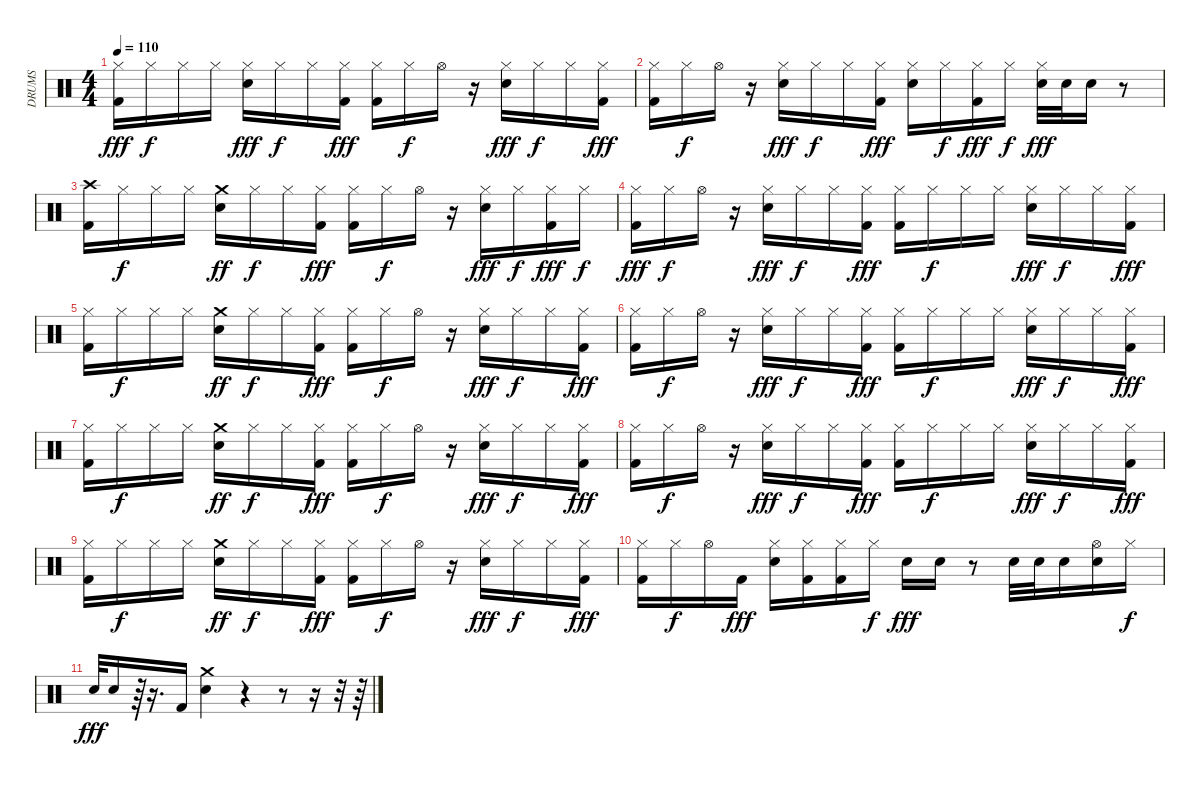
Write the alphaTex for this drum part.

\track ("DRUMS" "DRUMS") {solo instrument percussion}
\staff {score}
\articulation defaults
\ts (4 4)
\tempo 110
\clef neutral
\ks c
("Hi-Hat (closed)" "Kick (hit) 2").16{dy fff} "Hi-Hat (closed)".16{dy f} "Hi-Hat (closed)".16 "Hi-Hat (closed)".16 ("Electric Snare (hit)" "Hi-Hat (closed)").16{dy fff} "Hi-Hat (closed)".16{dy f} "Hi-Hat (closed)".16 ("Hi-Hat (closed)" "Kick (hit) 2").16{dy fff} ("Kick (hit) 2" "Hi-Hat (closed)").16 "Hi-Hat (closed)".16{dy f} "Hi-Hat (open)".16 r.16 ("Electric Snare (hit)" "Hi-Hat (closed)").16{dy fff} "Hi-Hat (closed)".16{dy f} "Hi-Hat (closed)".16 ("Hi-Hat (closed)" "Kick (hit) 2").16{dy fff} |
("Kick (hit) 2" "Hi-Hat (closed)").16 "Hi-Hat (closed)".16{dy f} "Hi-Hat (open)".16 r.16 ("Electric Snare (hit)" "Hi-Hat (closed)").16{dy fff} "Hi-Hat (closed)".16{dy f} "Hi-Hat (closed)".16 ("Hi-Hat (closed)" "Kick (hit) 2").16{dy fff} ("Electric Snare (hit)" "Hi-Hat (closed)").16 "Hi-Hat (closed)".16{dy f} ("Kick (hit) 2" "Hi-Hat (closed)").16{dy fff} "Hi-Hat (closed)".16{dy f} ("Electric Snare (hit)" "Hi-Hat (closed)").32{dy fff} "Electric Snare (hit)".32 "Electric Snare (hit)".16 r.8 |
("Crash high (hit)" "Kick (hit) 2").16 "Hi-Hat (closed)".16{dy f} "Hi-Hat (closed)".16 "Hi-Hat (closed)".16 ("Electric Snare (hit)" "Crash medium (hit)").16{dy ff} "Hi-Hat (closed)".16{dy f} "Hi-Hat (closed)".16 ("Hi-Hat (closed)" "Kick (hit) 2").16{dy fff} ("Kick (hit) 2" "Hi-Hat (closed)").16 "Hi-Hat (closed)".16{dy f} "Hi-Hat (open)".16 r.16 ("Electric Snare (hit)" "Hi-Hat (closed)").16{dy fff} "Hi-Hat (closed)".16{dy f} ("Kick (hit) 2" "Hi-Hat (closed)").16{dy fff} "Hi-Hat (closed)".16{dy f} |
("Kick (hit) 2" "Hi-Hat (closed)").16{dy fff} "Hi-Hat (closed)".16{dy f} "Hi-Hat (open)".16 r.16 ("Electric Snare (hit)" "Hi-Hat (closed)").16{dy fff} "Hi-Hat (closed)".16{dy f} "Hi-Hat (closed)".16 ("Hi-Hat (closed)" "Kick (hit) 2").16{dy fff} ("Kick (hit) 2" "Hi-Hat (closed)").16 "Hi-Hat (closed)".16{dy f} "Hi-Hat (closed)".16 "Hi-Hat (closed)".16 ("Electric Snare (hit)" "Hi-Hat (closed)").16{dy fff} "Hi-Hat (closed)".16{dy f} "Hi-Hat (closed)".16 ("Hi-Hat (closed)" "Kick (hit) 2").16{dy fff} |
("Hi-Hat (closed)" "Kick (hit) 2").16 "Hi-Hat (closed)".16{dy f} "Hi-Hat (closed)".16 "Hi-Hat (closed)".16 ("Electric Snare (hit)" "Crash medium (hit)").16{dy ff} "Hi-Hat (closed)".16{dy f} "Hi-Hat (closed)".16 ("Hi-Hat (closed)" "Kick (hit) 2").16{dy fff} ("Kick (hit) 2" "Hi-Hat (closed)").16 "Hi-Hat (closed)".16{dy f} "Hi-Hat (open)".16 r.16 ("Electric Snare (hit)" "Hi-Hat (closed)").16{dy fff} "Hi-Hat (closed)".16{dy f} "Hi-Hat (closed)".16 ("Hi-Hat (closed)" "Kick (hit) 2").16{dy fff} |
("Kick (hit) 2" "Hi-Hat (closed)").16 "Hi-Hat (closed)".16{dy f} "Hi-Hat (open)".16 r.16 ("Electric Snare (hit)" "Hi-Hat (closed)").16{dy fff} "Hi-Hat (closed)".16{dy f} "Hi-Hat (closed)".16 ("Hi-Hat (closed)" "Kick (hit) 2").16{dy fff} ("Kick (hit) 2" "Hi-Hat (closed)").16 "Hi-Hat (closed)".16{dy f} "Hi-Hat (closed)".16 "Hi-Hat (closed)".16 ("Electric Snare (hit)" "Hi-Hat (closed)").16{dy fff} "Hi-Hat (closed)".16{dy f} "Hi-Hat (closed)".16 ("Hi-Hat (closed)" "Kick (hit) 2").16{dy fff} |
("Hi-Hat (closed)" "Kick (hit) 2").16 "Hi-Hat (closed)".16{dy f} "Hi-Hat (closed)".16 "Hi-Hat (closed)".16 ("Electric Snare (hit)" "Crash medium (hit)").16{dy ff} "Hi-Hat (closed)".16{dy f} "Hi-Hat (closed)".16 ("Hi-Hat (closed)" "Kick (hit) 2").16{dy fff} ("Kick (hit) 2" "Hi-Hat (closed)").16 "Hi-Hat (closed)".16{dy f} "Hi-Hat (open)".16 r.16 ("Electric Snare (hit)" "Hi-Hat (closed)").16{dy fff} "Hi-Hat (closed)".16{dy f} "Hi-Hat (closed)".16 ("Hi-Hat (closed)" "Kick (hit) 2").16{dy fff} |
("Kick (hit) 2" "Hi-Hat (closed)").16 "Hi-Hat (closed)".16{dy f} "Hi-Hat (open)".16 r.16 ("Electric Snare (hit)" "Hi-Hat (closed)").16{dy fff} "Hi-Hat (closed)".16{dy f} "Hi-Hat (closed)".16 ("Hi-Hat (closed)" "Kick (hit) 2").16{dy fff} ("Kick (hit) 2" "Hi-Hat (closed)").16 "Hi-Hat (closed)".16{dy f} "Hi-Hat (closed)".16 "Hi-Hat (closed)".16 ("Electric Snare (hit)" "Hi-Hat (closed)").16{dy fff} "Hi-Hat (closed)".16{dy f} "Hi-Hat (closed)".16 ("Hi-Hat (closed)" "Kick (hit) 2").16{dy fff} |
("Hi-Hat (closed)" "Kick (hit) 2").16 "Hi-Hat (closed)".16{dy f} "Hi-Hat (closed)".16 "Hi-Hat (closed)".16 ("Electric Snare (hit)" "Crash medium (hit)").16{dy ff} "Hi-Hat (closed)".16{dy f} "Hi-Hat (closed)".16 ("Hi-Hat (closed)" "Kick (hit) 2").16{dy fff} ("Kick (hit) 2" "Hi-Hat (closed)").16 "Hi-Hat (closed)".16{dy f} "Hi-Hat (open)".16 r.16 ("Electric Snare (hit)" "Hi-Hat (closed)").16{dy fff} "Hi-Hat (closed)".16{dy f} "Hi-Hat (closed)".16 ("Hi-Hat (closed)" "Kick (hit) 2").16{dy fff} |
("Kick (hit) 2" "Hi-Hat (closed)").16 "Hi-Hat (closed)".16{dy f} "Hi-Hat (open)".16 "Kick (hit) 2".16{dy fff} ("Electric Snare (hit)" "Hi-Hat (closed)").16 ("Kick (hit) 2" "Hi-Hat (closed)").16 ("Kick (hit) 2" "Hi-Hat (closed)").16 "Hi-Hat (closed)".16{dy f} "Electric Snare (hit)".16{dy fff} "Electric Snare (hit)".16 r.8 "Electric Snare (hit)".32 "Electric Snare (hit)".32 "Electric Snare (hit)".16 ("Hi-Hat (open)" "Electric Snare (hit)").16 "Hi-Hat (closed)".16{dy f} |
"Electric Snare (hit)".32{dy fff} "Electric Snare (hit)".16 r.64 r.16{d} "Kick (hit) 2".16 ("Crash medium (hit)" "Electric Snare (hit)").4 r.4 r.8 r.16 r.32 r.64
